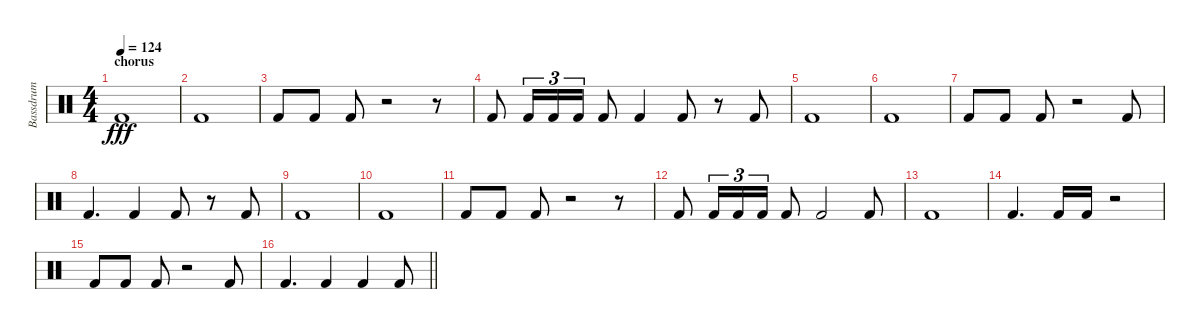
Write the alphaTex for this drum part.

\track ("Bassdrum" "Bassdrum") {instrument percussion}
\staff {score}
\articulation defaults
\ts (4 4)
\section ("" "chorus")
\tempo 124
\clef neutral
\ks c "Kick (hit) 2".1{dy fff}
|
"Kick (hit) 2".1 |
"Kick (hit) 2".8 "Kick (hit) 2".8 "Kick (hit) 2".8 r.2 r.8 |
"Kick (hit) 2".8 "Kick (hit) 2".16{tu (3 2)} "Kick (hit) 2".16{tu (3 2)} "Kick (hit) 2".16{tu (3 2)} "Kick (hit) 2".8 "Kick (hit) 2".4 "Kick (hit) 2".8 r.8 "Kick (hit) 2".8 |
"Kick (hit) 2".1 |
"Kick (hit) 2".1 |
"Kick (hit) 2".8 "Kick (hit) 2".8 "Kick (hit) 2".8 r.2 "Kick (hit) 2".8 |
"Kick (hit) 2".4{d} "Kick (hit) 2".4 "Kick (hit) 2".8 r.8 "Kick (hit) 2".8 |
"Kick (hit) 2".1 |
"Kick (hit) 2".1 |
"Kick (hit) 2".8 "Kick (hit) 2".8 "Kick (hit) 2".8 r.2 r.8 |
"Kick (hit) 2".8 "Kick (hit) 2".16{tu (3 2)} "Kick (hit) 2".16{tu (3 2)} "Kick (hit) 2".16{tu (3 2)} "Kick (hit) 2".8 "Kick (hit) 2".2 "Kick (hit) 2".8 |
"Kick (hit) 2".1 |
"Kick (hit) 2".4{d} "Kick (hit) 2".16 "Kick (hit) 2".16 r.2 |
"Kick (hit) 2".8 "Kick (hit) 2".8 "Kick (hit) 2".8 r.2 "Kick (hit) 2".8 |
\barLineRight lightlight "Kick (hit) 2".4{d} "Kick (hit) 2".4 "Kick (hit) 2".4 "Kick (hit) 2".8
